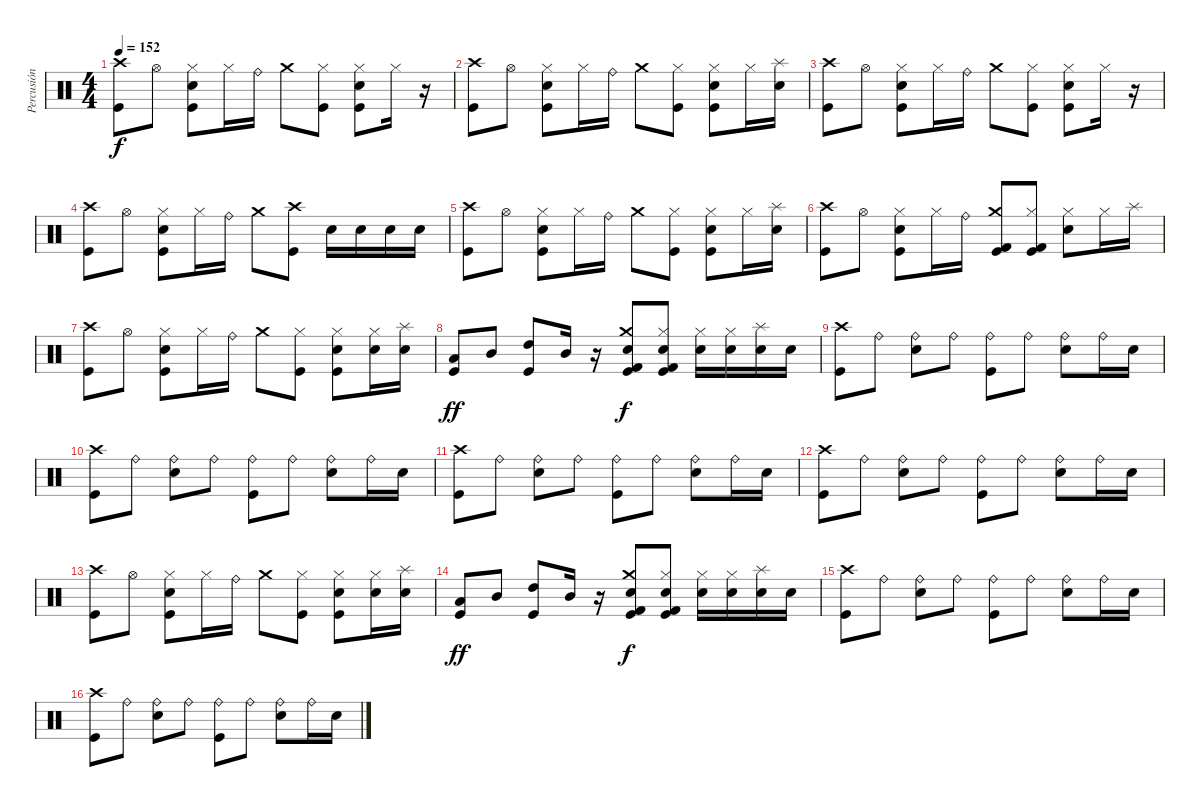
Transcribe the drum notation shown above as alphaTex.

\track ("Percusión" "Percusión") {instrument percussion}
\staff {score}
\articulation defaults
\ts (4 4)
\tempo 152
\clef neutral
\ks c
("Crash high (hit)" "Kick (hit)").8{dy f} "Hi-Hat (open)".8 ("Hi-Hat (closed)" "Electric Snare (hit)" "Kick (hit)").8 "Hi-Hat (closed)".16 "Ride (bell)".16 "Crash medium (hit)".8 ("Hi-Hat (closed)" "Kick (hit)").8 ("Hi-Hat (closed)" "Electric Snare (hit)" "Kick (hit)").8 "Hi-Hat (closed)".16 r.16 |
("Crash high (hit)" "Kick (hit)").8 "Hi-Hat (open)".8 ("Hi-Hat (closed)" "Electric Snare (hit)" "Kick (hit)").8 "Hi-Hat (closed)".16 "Ride (bell)".16 "Crash medium (hit)".8 ("Hi-Hat (closed)" "Kick (hit)").8 ("Hi-Hat (closed)" "Electric Snare (hit)" "Kick (hit)").8 "Hi-Hat (closed)".16 ("Splash (hit)" "Electric Snare (hit)").16 |
("Crash high (hit)" "Kick (hit)").8 "Hi-Hat (open)".8 ("Hi-Hat (closed)" "Electric Snare (hit)" "Kick (hit)").8 "Hi-Hat (closed)".16 "Ride (bell)".16 "Crash medium (hit)".8 ("Hi-Hat (closed)" "Kick (hit)").8 ("Hi-Hat (closed)" "Electric Snare (hit)" "Kick (hit)").8 "Hi-Hat (closed)".16 r.16 |
("Crash high (hit)" "Kick (hit)").8 "Hi-Hat (open)".8 ("Hi-Hat (closed)" "Electric Snare (hit)" "Kick (hit)").8 "Hi-Hat (closed)".16 "Ride (bell)".16 "Crash medium (hit)".8 ("Crash high (hit)" "Kick (hit)").8 "Electric Snare (hit)".16 "Electric Snare (hit)".16 "Electric Snare (hit)".16 "Electric Snare (hit)".16 |
("Crash high (hit)" "Kick (hit)").8 "Hi-Hat (open)".8 ("Hi-Hat (closed)" "Electric Snare (hit)" "Kick (hit)").8 "Hi-Hat (closed)".16 "Ride (bell)".16 "Crash medium (hit)".8 ("Hi-Hat (closed)" "Kick (hit)").8 ("Hi-Hat (closed)" "Electric Snare (hit)" "Kick (hit)").8 "Hi-Hat (closed)".16 ("Splash (hit)" "Electric Snare (hit)").16 |
("Crash high (hit)" "Kick (hit)").8 "Hi-Hat (open)".8 ("Hi-Hat (closed)" "Electric Snare (hit)" "Kick (hit)").8 "Hi-Hat (closed)".16 "Ride (bell)".16 ("Crash medium (hit)" "Kick (hit) 2" "Kick (hit)").8 ("Hi-Hat (closed)" "Kick (hit) 2" "Kick (hit)").8 ("Hi-Hat (closed)" "Electric Snare (hit)").8 "Hi-Hat (closed)".16 "Splash (hit)".16 |
("Crash high (hit)" "Kick (hit)").8 "Hi-Hat (open)".8 ("Hi-Hat (closed)" "Electric Snare (hit)" "Kick (hit)").8 "Hi-Hat (closed)".16 "Ride (bell)".16 "Crash medium (hit)".8 ("Hi-Hat (closed)" "Kick (hit)").8 ("Hi-Hat (closed)" "Electric Snare (hit)" "Kick (hit)").8 ("Hi-Hat (closed)" "Electric Snare (hit)").16 ("Splash (hit)" "Electric Snare (hit)").16 |
("Low Tom (hit)" "Kick (hit)").8{dy ff} "Mid Tom (hit)".8 ("High Tom (hit)" "Kick (hit)").8 "Mid Tom (hit)".16 r.16 ("Crash medium (hit)" "Electric Snare (hit)" "Kick (hit) 2" "Kick (hit)").8{dy f} ("Hi-Hat (closed)" "Electric Snare (hit)" "Kick (hit) 2" "Kick (hit)").8 ("Hi-Hat (closed)" "Electric Snare (hit)").16 ("Hi-Hat (closed)" "Electric Snare (hit)").16 ("Splash (hit)" "Electric Snare (hit)").16 "Electric Snare (hit)".16 |
("Crash high (hit)" "Kick (hit)").8 "Ride (bell)".8 ("Ride (bell)" "Electric Snare (hit)").8 "Ride (bell)".8 ("Ride (bell)" "Kick (hit)").8 "Ride (bell)".8 ("Ride (bell)" "Electric Snare (hit)").8 "Ride (bell)".16 "Electric Snare (hit)".16 |
("Crash high (hit)" "Kick (hit)").8 "Ride (bell)".8 ("Ride (bell)" "Electric Snare (hit)").8 "Ride (bell)".8 ("Ride (bell)" "Kick (hit)").8 "Ride (bell)".8 ("Ride (bell)" "Electric Snare (hit)").8 "Ride (bell)".16 "Electric Snare (hit)".16 |
("Crash high (hit)" "Kick (hit)").8 "Ride (bell)".8 ("Ride (bell)" "Electric Snare (hit)").8 "Ride (bell)".8 ("Ride (bell)" "Kick (hit)").8 "Ride (bell)".8 ("Ride (bell)" "Electric Snare (hit)").8 "Ride (bell)".16 "Electric Snare (hit)".16 |
("Crash high (hit)" "Kick (hit)").8 "Ride (bell)".8 ("Ride (bell)" "Electric Snare (hit)").8 "Ride (bell)".8 ("Ride (bell)" "Kick (hit)").8 "Ride (bell)".8 ("Ride (bell)" "Electric Snare (hit)").8 "Ride (bell)".16 "Electric Snare (hit)".16 |
("Crash high (hit)" "Kick (hit)").8 "Hi-Hat (open)".8 ("Hi-Hat (closed)" "Electric Snare (hit)" "Kick (hit)").8 "Hi-Hat (closed)".16 "Ride (bell)".16 "Crash medium (hit)".8 ("Hi-Hat (closed)" "Kick (hit)").8 ("Hi-Hat (closed)" "Electric Snare (hit)" "Kick (hit)").8 ("Hi-Hat (closed)" "Electric Snare (hit)").16 ("Splash (hit)" "Electric Snare (hit)").16 |
("Low Tom (hit)" "Kick (hit)").8{dy ff} "Mid Tom (hit)".8 ("High Tom (hit)" "Kick (hit)").8 "Mid Tom (hit)".16 r.16 ("Crash medium (hit)" "Electric Snare (hit)" "Kick (hit) 2" "Kick (hit)").8{dy f} ("Hi-Hat (closed)" "Electric Snare (hit)" "Kick (hit) 2" "Kick (hit)").8 ("Hi-Hat (closed)" "Electric Snare (hit)").16 ("Hi-Hat (closed)" "Electric Snare (hit)").16 ("Splash (hit)" "Electric Snare (hit)").16 "Electric Snare (hit)".16 |
("Crash high (hit)" "Kick (hit)").8 "Ride (bell)".8 ("Ride (bell)" "Electric Snare (hit)").8 "Ride (bell)".8 ("Ride (bell)" "Kick (hit)").8 "Ride (bell)".8 ("Ride (bell)" "Electric Snare (hit)").8 "Ride (bell)".16 "Electric Snare (hit)".16 |
("Crash high (hit)" "Kick (hit)").8 "Ride (bell)".8 ("Ride (bell)" "Electric Snare (hit)").8 "Ride (bell)".8 ("Ride (bell)" "Kick (hit)").8 "Ride (bell)".8 ("Ride (bell)" "Electric Snare (hit)").8 "Ride (bell)".16 "Electric Snare (hit)".16
